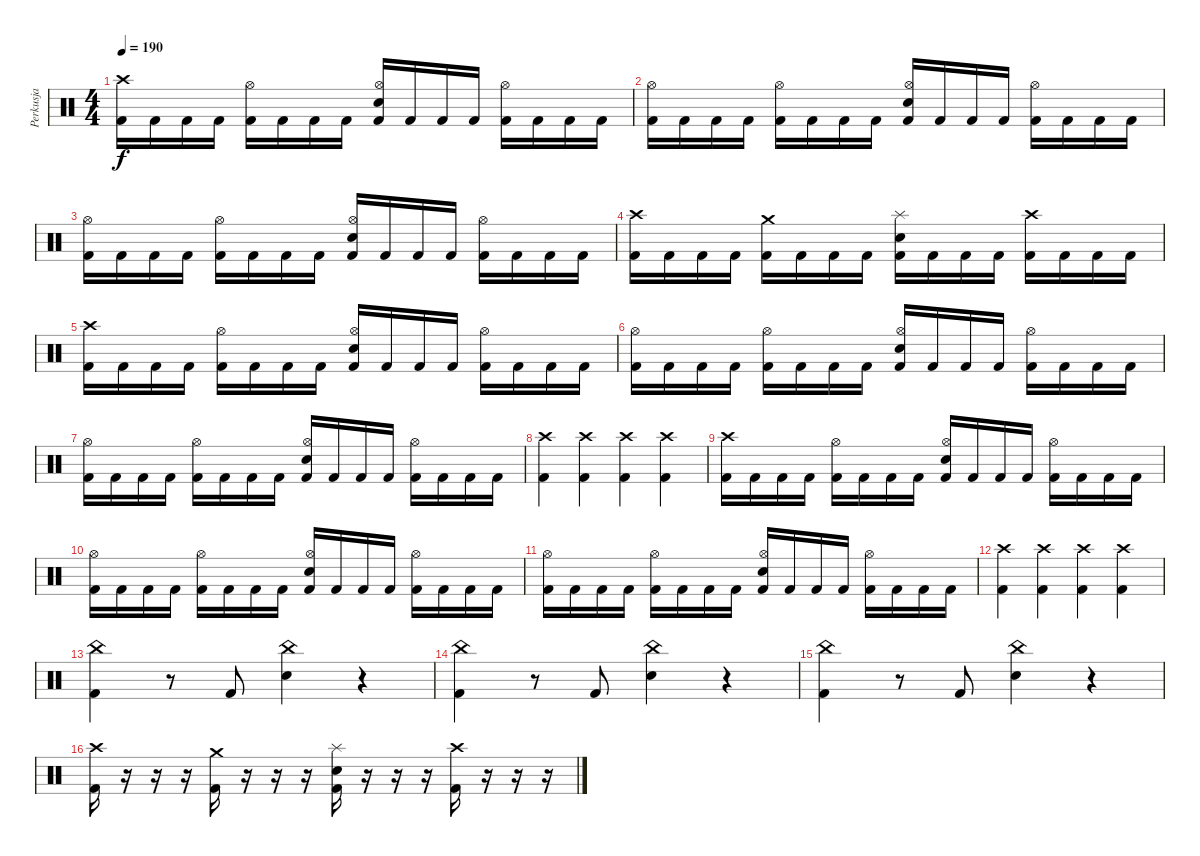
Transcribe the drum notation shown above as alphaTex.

\track ("Perkusja" "Perkusja") {instrument percussion}
\staff {score}
\articulation defaults
\ts (4 4)
\tempo 190
\clef neutral
\ks c
("Crash high (hit)" "Kick (hit) 2").16{dy f} "Kick (hit) 2".16 "Kick (hit) 2".16 "Kick (hit) 2".16 ("Hi-Hat (open)" "Kick (hit) 2").16 "Kick (hit) 2".16 "Kick (hit) 2".16 "Kick (hit) 2".16 ("Hi-Hat (open)" "Electric Snare (hit)" "Kick (hit) 2").16 "Kick (hit) 2".16 "Kick (hit) 2".16 "Kick (hit) 2".16 ("Hi-Hat (open)" "Kick (hit) 2").16 "Kick (hit) 2".16 "Kick (hit) 2".16 "Kick (hit) 2".16 |
("Hi-Hat (open)" "Kick (hit) 2").16 "Kick (hit) 2".16 "Kick (hit) 2".16 "Kick (hit) 2".16 ("Hi-Hat (open)" "Kick (hit) 2").16 "Kick (hit) 2".16 "Kick (hit) 2".16 "Kick (hit) 2".16 ("Hi-Hat (open)" "Electric Snare (hit)" "Kick (hit) 2").16 "Kick (hit) 2".16 "Kick (hit) 2".16 "Kick (hit) 2".16 ("Hi-Hat (open)" "Kick (hit) 2").16 "Kick (hit) 2".16 "Kick (hit) 2".16 "Kick (hit) 2".16 |
("Hi-Hat (open)" "Kick (hit) 2").16 "Kick (hit) 2".16 "Kick (hit) 2".16 "Kick (hit) 2".16 ("Hi-Hat (open)" "Kick (hit) 2").16 "Kick (hit) 2".16 "Kick (hit) 2".16 "Kick (hit) 2".16 ("Hi-Hat (open)" "Electric Snare (hit)" "Kick (hit) 2").16 "Kick (hit) 2".16 "Kick (hit) 2".16 "Kick (hit) 2".16 ("Hi-Hat (open)" "Kick (hit) 2").16 "Kick (hit) 2".16 "Kick (hit) 2".16 "Kick (hit) 2".16 |
("Crash high (hit)" "Kick (hit) 2").16 "Kick (hit) 2".16 "Kick (hit) 2".16 "Kick (hit) 2".16 ("Crash medium (hit)" "Kick (hit) 2").16 "Kick (hit) 2".16 "Kick (hit) 2".16 "Kick (hit) 2".16 ("Splash (hit)" "Electric Snare (hit)" "Kick (hit) 2").16 "Kick (hit) 2".16 "Kick (hit) 2".16 "Kick (hit) 2".16 ("Crash high (hit)" "Kick (hit) 2").16 "Kick (hit) 2".16 "Kick (hit) 2".16 "Kick (hit) 2".16 |
("Crash high (hit)" "Kick (hit) 2").16 "Kick (hit) 2".16 "Kick (hit) 2".16 "Kick (hit) 2".16 ("Hi-Hat (open)" "Kick (hit) 2").16 "Kick (hit) 2".16 "Kick (hit) 2".16 "Kick (hit) 2".16 ("Hi-Hat (open)" "Electric Snare (hit)" "Kick (hit) 2").16 "Kick (hit) 2".16 "Kick (hit) 2".16 "Kick (hit) 2".16 ("Hi-Hat (open)" "Kick (hit) 2").16 "Kick (hit) 2".16 "Kick (hit) 2".16 "Kick (hit) 2".16 |
("Hi-Hat (open)" "Kick (hit) 2").16 "Kick (hit) 2".16 "Kick (hit) 2".16 "Kick (hit) 2".16 ("Hi-Hat (open)" "Kick (hit) 2").16 "Kick (hit) 2".16 "Kick (hit) 2".16 "Kick (hit) 2".16 ("Hi-Hat (open)" "Electric Snare (hit)" "Kick (hit) 2").16 "Kick (hit) 2".16 "Kick (hit) 2".16 "Kick (hit) 2".16 ("Hi-Hat (open)" "Kick (hit) 2").16 "Kick (hit) 2".16 "Kick (hit) 2".16 "Kick (hit) 2".16 |
("Hi-Hat (open)" "Kick (hit) 2").16 "Kick (hit) 2".16 "Kick (hit) 2".16 "Kick (hit) 2".16 ("Hi-Hat (open)" "Kick (hit) 2").16 "Kick (hit) 2".16 "Kick (hit) 2".16 "Kick (hit) 2".16 ("Hi-Hat (open)" "Electric Snare (hit)" "Kick (hit) 2").16 "Kick (hit) 2".16 "Kick (hit) 2".16 "Kick (hit) 2".16 ("Hi-Hat (open)" "Kick (hit) 2").16 "Kick (hit) 2".16 "Kick (hit) 2".16 "Kick (hit) 2".16 |
("Crash high (hit)" "Kick (hit) 2").4 ("Crash high (hit)" "Kick (hit) 2").4 ("Crash high (hit)" "Kick (hit) 2").4 ("Crash high (hit)" "Kick (hit) 2").4 |
("Crash high (hit)" "Kick (hit) 2").16 "Kick (hit) 2".16 "Kick (hit) 2".16 "Kick (hit) 2".16 ("Hi-Hat (open)" "Kick (hit) 2").16 "Kick (hit) 2".16 "Kick (hit) 2".16 "Kick (hit) 2".16 ("Hi-Hat (open)" "Electric Snare (hit)" "Kick (hit) 2").16 "Kick (hit) 2".16 "Kick (hit) 2".16 "Kick (hit) 2".16 ("Hi-Hat (open)" "Kick (hit) 2").16 "Kick (hit) 2".16 "Kick (hit) 2".16 "Kick (hit) 2".16 |
("Hi-Hat (open)" "Kick (hit) 2").16 "Kick (hit) 2".16 "Kick (hit) 2".16 "Kick (hit) 2".16 ("Hi-Hat (open)" "Kick (hit) 2").16 "Kick (hit) 2".16 "Kick (hit) 2".16 "Kick (hit) 2".16 ("Hi-Hat (open)" "Electric Snare (hit)" "Kick (hit) 2").16 "Kick (hit) 2".16 "Kick (hit) 2".16 "Kick (hit) 2".16 ("Hi-Hat (open)" "Kick (hit) 2").16 "Kick (hit) 2".16 "Kick (hit) 2".16 "Kick (hit) 2".16 |
("Hi-Hat (open)" "Kick (hit) 2").16 "Kick (hit) 2".16 "Kick (hit) 2".16 "Kick (hit) 2".16 ("Hi-Hat (open)" "Kick (hit) 2").16 "Kick (hit) 2".16 "Kick (hit) 2".16 "Kick (hit) 2".16 ("Hi-Hat (open)" "Electric Snare (hit)" "Kick (hit) 2").16 "Kick (hit) 2".16 "Kick (hit) 2".16 "Kick (hit) 2".16 ("Hi-Hat (open)" "Kick (hit) 2").16 "Kick (hit) 2".16 "Kick (hit) 2".16 "Kick (hit) 2".16 |
("Crash high (hit)" "Kick (hit) 2").4 ("Crash high (hit)" "Kick (hit) 2").4 ("Crash high (hit)" "Kick (hit) 2").4 ("Crash high (hit)" "Kick (hit) 2").4 |
("China (hit)" "Kick (hit) 2").4 r.8 "Kick (hit) 2".8 ("China (hit)" "Electric Snare (hit)").4 r.4 |
("China (hit)" "Kick (hit) 2").4 r.8 "Kick (hit) 2".8 ("China (hit)" "Electric Snare (hit)").4 r.4 |
("China (hit)" "Kick (hit) 2").4 r.8 "Kick (hit) 2".8 ("China (hit)" "Electric Snare (hit)").4 r.4 |
("Crash high (hit)" "Kick (hit) 2").16 r.16 r.16 r.16 ("Crash medium (hit)" "Kick (hit) 2").16 r.16 r.16 r.16 ("Splash (hit)" "Electric Snare (hit)" "Kick (hit) 2").16 r.16 r.16 r.16 ("Crash high (hit)" "Kick (hit) 2").16 r.16 r.16 r.16
